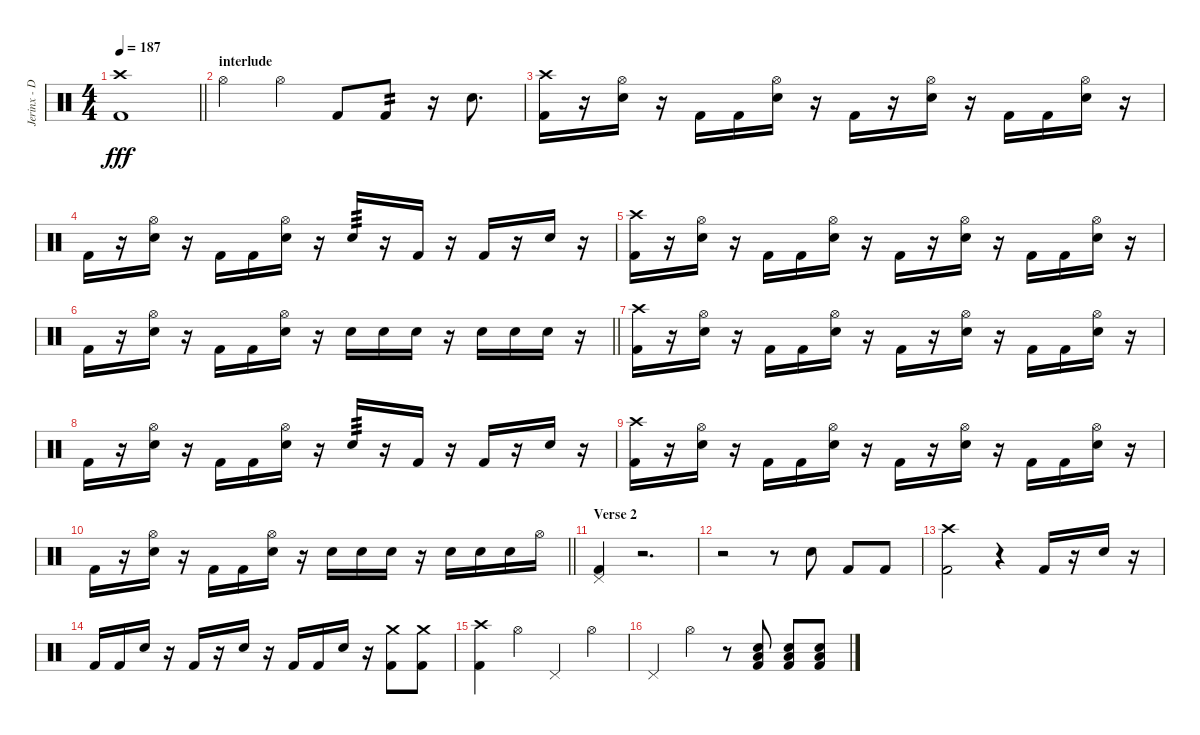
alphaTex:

\track ("Jerinx - Drum" "Jerinx - D") {instrument percussion}
\staff {score}
\articulation defaults
\ts (4 4)
\tempo 187
\clef neutral
\barLineRight lightlight
\ks c
("Kick (hit) 2" "Crash high (hit)").1{dy fff} |
\section ("" "interlude")
"Hi-Hat (open)".4 "Hi-Hat (open)".4 "Kick (hit) 2".8 "Kick (hit) 2".8{tp 2} r.16 "Snare (hit) 2".8{d} |
("Kick (hit) 2" "Crash high (hit)").16 r.16 ("Hi-Hat (open)" "Snare (hit) 2").16 r.16 "Kick (hit) 2".16 "Kick (hit) 2".16 ("Hi-Hat (open)" "Snare (hit) 2").16 r.16 "Kick (hit) 2".16 r.16 ("Hi-Hat (open)" "Snare (hit) 2").16 r.16 "Kick (hit) 2".16 "Kick (hit) 2".16 ("Hi-Hat (open)" "Snare (hit) 2").16 r.16 |
"Kick (hit) 2".16 r.16 ("Hi-Hat (open)" "Snare (hit) 2").16 r.16 "Kick (hit) 2".16 "Kick (hit) 2".16 ("Hi-Hat (open)" "Snare (hit) 2").16 r.16 "Snare (hit) 2".16{tp 3} r.16 "Kick (hit) 2".16 r.16 "Kick (hit) 2".16 r.16 "Snare (hit) 2".16 r.16 |
("Kick (hit) 2" "Crash high (hit)").16 r.16 ("Hi-Hat (open)" "Snare (hit) 2").16 r.16 "Kick (hit) 2".16 "Kick (hit) 2".16 ("Hi-Hat (open)" "Snare (hit) 2").16 r.16 "Kick (hit) 2".16 r.16 ("Hi-Hat (open)" "Snare (hit) 2").16 r.16 "Kick (hit) 2".16 "Kick (hit) 2".16 ("Hi-Hat (open)" "Snare (hit) 2").16 r.16 |
\barLineRight lightlight "Kick (hit) 2".16
r.16 ("Hi-Hat (open)" "Snare (hit) 2").16 r.16 "Kick (hit) 2".16 "Kick (hit) 2".16 ("Hi-Hat (open)" "Snare (hit) 2").16 r.16 "Snare (hit) 2".16 "Snare (hit) 2".16 "Snare (hit) 2".16 r.16 "Snare (hit) 2".16 "Snare (hit) 2".16 "Snare (hit) 2".16 r.16 |
("Kick (hit) 2" "Crash high (hit)").16 r.16 ("Hi-Hat (open)" "Snare (hit) 2").16 r.16 "Kick (hit) 2".16 "Kick (hit) 2".16 ("Hi-Hat (open)" "Snare (hit) 2").16 r.16 "Kick (hit) 2".16 r.16 ("Hi-Hat (open)" "Snare (hit) 2").16 r.16 "Kick (hit) 2".16 "Kick (hit) 2".16 ("Hi-Hat (open)" "Snare (hit) 2").16 r.16 |
"Kick (hit) 2".16 r.16 ("Hi-Hat (open)" "Snare (hit) 2").16 r.16 "Kick (hit) 2".16 "Kick (hit) 2".16 ("Hi-Hat (open)" "Snare (hit) 2").16 r.16 "Snare (hit) 2".16{tp 3} r.16 "Kick (hit) 2".16 r.16 "Kick (hit) 2".16 r.16 "Snare (hit) 2".16 r.16 |
("Kick (hit) 2" "Crash high (hit)").16 r.16 ("Hi-Hat (open)" "Snare (hit) 2").16 r.16 "Kick (hit) 2".16 "Kick (hit) 2".16 ("Hi-Hat (open)" "Snare (hit) 2").16 r.16 "Kick (hit) 2".16 r.16 ("Hi-Hat (open)" "Snare (hit) 2").16 r.16 "Kick (hit) 2".16 "Kick (hit) 2".16 ("Hi-Hat (open)" "Snare (hit) 2").16 r.16 |
\barLineRight lightlight "Kick (hit) 2".16
r.16 ("Hi-Hat (open)" "Snare (hit) 2").16 r.16 "Kick (hit) 2".16 "Kick (hit) 2".16 ("Hi-Hat (open)" "Snare (hit) 2").16 r.16 "Snare (hit) 2".16 "Snare (hit) 2".16 "Snare (hit) 2".16 r.16 "Snare (hit) 2".16 "Snare (hit) 2".16 "Snare (hit) 2".16 "Hi-Hat (open)".16 |
\section ("" "Verse 2")
("Pedal Hi-Hat (hit)" "Kick (hit) 2").4 r.2{d} |
r.2 r.8 "Snare (hit) 2".8 "Kick (hit) 2".8 "Kick (hit) 2".8 |
("Kick (hit) 2" "Crash high (hit)").2 r.4 "Kick (hit) 2".16 r.16 "Snare (hit) 2".16 r.16 |
"Kick (hit) 2".16 "Kick (hit) 2".16 "Snare (hit) 2".16 r.16 "Kick (hit) 2".16 r.16 "Snare (hit) 2".16 r.16 "Kick (hit) 2".16 "Kick (hit) 2".16 "Snare (hit) 2".16 r.16 ("Kick (hit) 2" "Crash medium (hit)").8 ("Kick (hit) 2" "Crash medium (hit)").8 |
("Kick (hit) 2" "Crash high (hit)").4 "Hi-Hat (open)".4 "Pedal Hi-Hat (hit)".4 "Hi-Hat (open)".4 |
"Pedal Hi-Hat (hit)".4 "Hi-Hat (open)".4 r.8 ("Snare (hit) 2" "Kick (hit) 2" "Low Floor Tom (hit)").8 ("Snare (hit) 2" "Kick (hit) 2" "Low Floor Tom (hit)").8 ("Snare (hit) 2" "Kick (hit) 2" "Low Floor Tom (hit)").8
